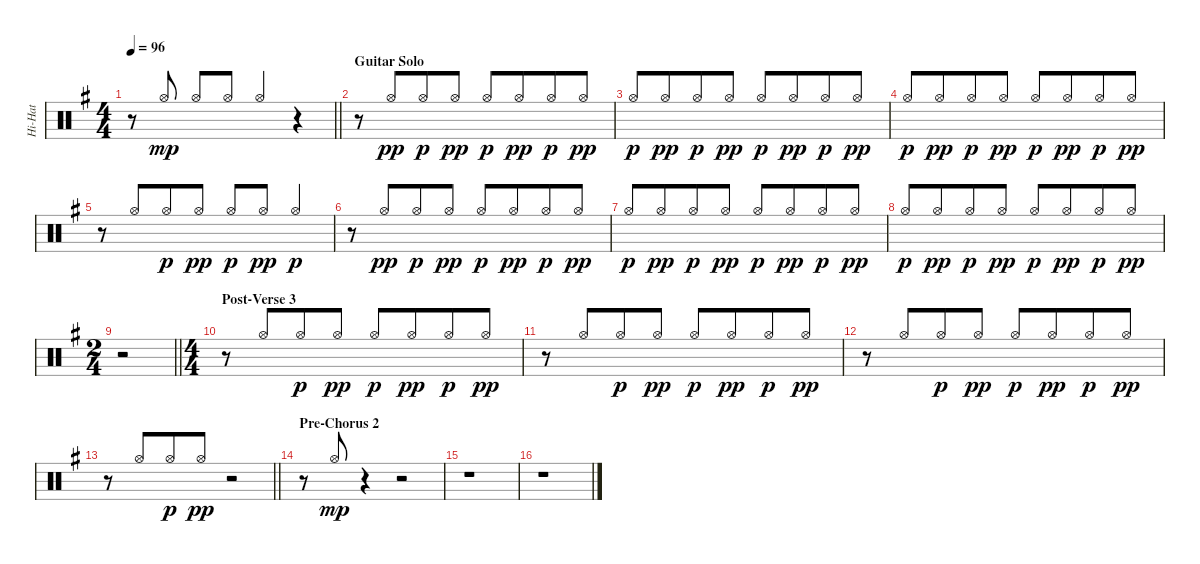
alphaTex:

\track ("Hi-Hat" "Hi-Hat") {instrument percussion}
\staff {score}
\articulation defaults
\ts (4 4)
\tempo 96
\clef neutral
\barLineRight lightlight
\ks g
r.8{dy mp} "Hi-Hat (open)".8{beam Up} "Hi-Hat (open)".8{beam Up} "Hi-Hat (open)".8{beam Up} "Hi-Hat (open)".4{beam Up} r.4 |
\section ("" "Guitar Solo")
r.8 "Hi-Hat (open)".8{dy pp beam Up beam merge} "Hi-Hat (open)".8{dy p beam Up} "Hi-Hat (open)".8{dy pp beam Up} "Hi-Hat (open)".8{dy p beam Up} "Hi-Hat (open)".8{dy pp beam Up beam merge} "Hi-Hat (open)".8{dy p beam Up} "Hi-Hat (open)".8{dy pp beam Up} |
"Hi-Hat (open)".8{dy p beam Up} "Hi-Hat (open)".8{dy pp beam Up beam merge} "Hi-Hat (open)".8{dy p beam Up} "Hi-Hat (open)".8{dy pp beam Up} "Hi-Hat (open)".8{dy p beam Up} "Hi-Hat (open)".8{dy pp beam Up beam merge} "Hi-Hat (open)".8{dy p beam Up} "Hi-Hat (open)".8{dy pp beam Up} |
"Hi-Hat (open)".8{dy p beam Up} "Hi-Hat (open)".8{dy pp beam Up beam merge} "Hi-Hat (open)".8{dy p beam Up} "Hi-Hat (open)".8{dy pp beam Up} "Hi-Hat (open)".8{dy p beam Up} "Hi-Hat (open)".8{dy pp beam Up beam merge} "Hi-Hat (open)".8{dy p beam Up} "Hi-Hat (open)".8{dy pp beam Up} |
r.8 "Hi-Hat (open)".8{beam Up beam merge} "Hi-Hat (open)".8{dy p beam Up} "Hi-Hat (open)".8{dy pp beam Up} "Hi-Hat (open)".8{dy p beam Up} "Hi-Hat (open)".8{dy pp beam Up} "Hi-Hat (open)".4{dy p beam Up} |
r.8 "Hi-Hat (open)".8{dy pp beam Up beam merge} "Hi-Hat (open)".8{dy p beam Up} "Hi-Hat (open)".8{dy pp beam Up} "Hi-Hat (open)".8{dy p beam Up} "Hi-Hat (open)".8{dy pp beam Up beam merge} "Hi-Hat (open)".8{dy p beam Up} "Hi-Hat (open)".8{dy pp beam Up} |
"Hi-Hat (open)".8{dy p beam Up} "Hi-Hat (open)".8{dy pp beam Up beam merge} "Hi-Hat (open)".8{dy p beam Up} "Hi-Hat (open)".8{dy pp beam Up} "Hi-Hat (open)".8{dy p beam Up} "Hi-Hat (open)".8{dy pp beam Up beam merge} "Hi-Hat (open)".8{dy p beam Up} "Hi-Hat (open)".8{dy pp beam Up} |
"Hi-Hat (open)".8{dy p beam Up} "Hi-Hat (open)".8{dy pp beam Up beam merge} "Hi-Hat (open)".8{dy p beam Up} "Hi-Hat (open)".8{dy pp beam Up} "Hi-Hat (open)".8{dy p beam Up} "Hi-Hat (open)".8{dy pp beam Up beam merge} "Hi-Hat (open)".8{dy p beam Up} "Hi-Hat (open)".8{dy pp beam Up} |
\ts (2 4)
\barLineRight lightlight
r.2 |
\ts (4 4)
\section ("" "Post-Verse 3")
r.8 "Hi-Hat (open)".8{beam Up beam merge} "Hi-Hat (open)".8{dy p beam Up} "Hi-Hat (open)".8{dy pp beam Up} "Hi-Hat (open)".8{dy p beam Up} "Hi-Hat (open)".8{dy pp beam Up beam merge} "Hi-Hat (open)".8{dy p beam Up} "Hi-Hat (open)".8{dy pp beam Up} |
r.8 "Hi-Hat (open)".8{beam Up beam merge} "Hi-Hat (open)".8{dy p beam Up} "Hi-Hat (open)".8{dy pp beam Up} "Hi-Hat (open)".8{dy p beam Up} "Hi-Hat (open)".8{dy pp beam Up beam merge} "Hi-Hat (open)".8{dy p beam Up} "Hi-Hat (open)".8{dy pp beam Up} |
r.8 "Hi-Hat (open)".8{beam Up beam merge} "Hi-Hat (open)".8{dy p beam Up} "Hi-Hat (open)".8{dy pp beam Up} "Hi-Hat (open)".8{dy p beam Up} "Hi-Hat (open)".8{dy pp beam Up beam merge} "Hi-Hat (open)".8{dy p beam Up} "Hi-Hat (open)".8{dy pp beam Up} |
\barLineRight lightlight
r.8 "Hi-Hat (open)".8{beam Up beam merge} "Hi-Hat (open)".8{dy p beam Up} "Hi-Hat (open)".8{dy pp beam Up} r.2 |
\section ("" "Pre-Chorus 2")
r.8 "Hi-Hat (open)".8{dy mp beam Up} r.4 r.2 |
r.1 |
r.1
